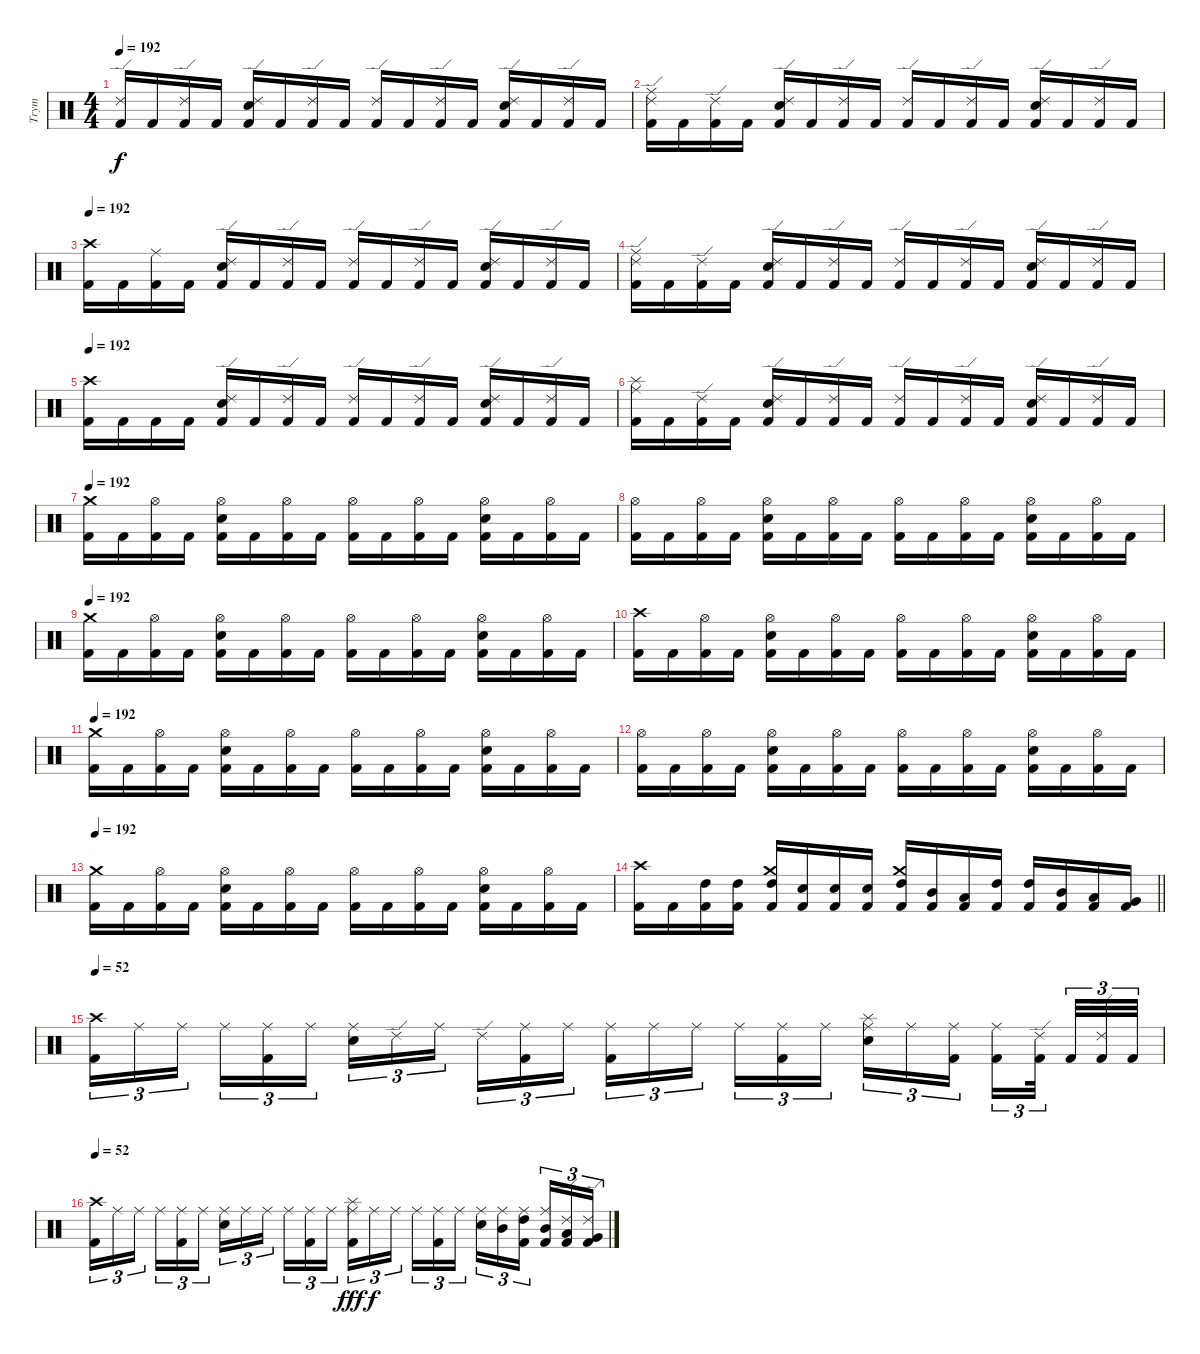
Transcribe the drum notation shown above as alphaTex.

\track ("Trym" "Trym") {instrument percussion}
\staff {score}
\articulation defaults
\ts (4 4)
\tempo 192
\clef neutral
\ks c
("Ride (edge) 2" "Kick (hit) 2").16{dy f} "Kick (hit) 2".16 ("Ride (edge) 2" "Kick (hit) 2").16 "Kick (hit) 2".16 ("Ride (edge) 2" "Electric Snare (hit)" "Kick (hit) 2").16 "Kick (hit) 2".16 ("Ride (edge) 2" "Kick (hit) 2").16 "Kick (hit) 2".16 ("Ride (edge) 2" "Kick (hit) 2").16 "Kick (hit) 2".16 ("Ride (edge) 2" "Kick (hit) 2").16 "Kick (hit) 2".16 ("Ride (edge) 2" "Electric Snare (hit)" "Kick (hit) 2").16 "Kick (hit) 2".16 ("Ride (edge) 2" "Kick (hit) 2").16 "Kick (hit) 2".16 |
("Ride (middle)" "Ride (edge) 2" "Kick (hit) 2").16 "Kick (hit) 2".16 ("Ride (edge) 2" "Kick (hit) 2").16 "Kick (hit) 2".16 ("Ride (edge) 2" "Electric Snare (hit)" "Kick (hit) 2").16 "Kick (hit) 2".16 ("Ride (edge) 2" "Kick (hit) 2").16 "Kick (hit) 2".16 ("Ride (edge) 2" "Kick (hit) 2").16 "Kick (hit) 2".16 ("Ride (edge) 2" "Kick (hit) 2").16 "Kick (hit) 2".16 ("Ride (edge) 2" "Electric Snare (hit)" "Kick (hit) 2").16 "Kick (hit) 2".16 ("Ride (edge) 2" "Kick (hit) 2").16 "Kick (hit) 2".16 |
\tempo 192
("Crash high (hit)" "Kick (hit) 2").16 "Kick (hit) 2".16 ("Ride (middle)" "Kick (hit) 2").16 "Kick (hit) 2".16 ("Ride (edge) 2" "Electric Snare (hit)" "Kick (hit) 2").16 "Kick (hit) 2".16 ("Ride (edge) 2" "Kick (hit) 2").16 "Kick (hit) 2".16 ("Ride (edge) 2" "Kick (hit) 2").16 "Kick (hit) 2".16 ("Ride (edge) 2" "Kick (hit) 2").16 "Kick (hit) 2".16 ("Ride (edge) 2" "Electric Snare (hit)" "Kick (hit) 2").16 "Kick (hit) 2".16 ("Ride (edge) 2" "Kick (hit) 2").16 "Kick (hit) 2".16 |
("Ride (middle)" "Ride (edge) 2" "Kick (hit) 2").16 "Kick (hit) 2".16 ("Ride (edge) 2" "Kick (hit) 2").16 "Kick (hit) 2".16 ("Ride (edge) 2" "Electric Snare (hit)" "Kick (hit) 2").16 "Kick (hit) 2".16 ("Ride (edge) 2" "Kick (hit) 2").16 "Kick (hit) 2".16 ("Ride (edge) 2" "Kick (hit) 2").16 "Kick (hit) 2".16 ("Ride (edge) 2" "Kick (hit) 2").16 "Kick (hit) 2".16 ("Ride (edge) 2" "Electric Snare (hit)" "Kick (hit) 2").16 "Kick (hit) 2".16 ("Ride (edge) 2" "Kick (hit) 2").16 "Kick (hit) 2".16 |
\tempo 192
("Crash high (hit)" "Kick (hit) 2").16 "Kick (hit) 2".16 "Kick (hit) 2".16 "Kick (hit) 2".16 ("Ride (edge) 2" "Electric Snare (hit)" "Kick (hit) 2").16 "Kick (hit) 2".16 ("Ride (edge) 2" "Kick (hit) 2").16 "Kick (hit) 2".16 ("Ride (edge) 2" "Kick (hit) 2").16 "Kick (hit) 2".16 ("Ride (edge) 2" "Kick (hit) 2").16 "Kick (hit) 2".16 ("Ride (edge) 2" "Electric Snare (hit)" "Kick (hit) 2").16 "Kick (hit) 2".16 ("Ride (edge) 2" "Kick (hit) 2").16 "Kick (hit) 2".16 |
("Ride (middle)" "Splash (hit)" "Kick (hit) 2").16 "Kick (hit) 2".16 ("Ride (edge) 2" "Kick (hit) 2").16 "Kick (hit) 2".16 ("Ride (edge) 2" "Electric Snare (hit)" "Kick (hit) 2").16 "Kick (hit) 2".16 ("Ride (edge) 2" "Kick (hit) 2").16 "Kick (hit) 2".16 ("Ride (edge) 2" "Kick (hit) 2").16 "Kick (hit) 2".16 ("Ride (edge) 2" "Kick (hit) 2").16 "Kick (hit) 2".16 ("Ride (edge) 2" "Electric Snare (hit)" "Kick (hit) 2").16 "Kick (hit) 2".16 ("Ride (edge) 2" "Kick (hit) 2").16 "Kick (hit) 2".16 |
\tempo 192
("Crash medium (hit)" "Kick (hit) 2").16 "Kick (hit) 2".16 ("Hi-Hat (open)" "Kick (hit) 2").16 "Kick (hit) 2".16 ("Hi-Hat (open)" "Electric Snare (hit)" "Kick (hit) 2").16 "Kick (hit) 2".16 ("Hi-Hat (open)" "Kick (hit) 2").16 "Kick (hit) 2".16 ("Hi-Hat (open)" "Kick (hit) 2").16 "Kick (hit) 2".16 ("Hi-Hat (open)" "Kick (hit) 2").16 "Kick (hit) 2".16 ("Hi-Hat (open)" "Electric Snare (hit)" "Kick (hit) 2").16 "Kick (hit) 2".16 ("Hi-Hat (open)" "Kick (hit) 2").16 "Kick (hit) 2".16 |
("Hi-Hat (open)" "Kick (hit) 2").16 "Kick (hit) 2".16 ("Hi-Hat (open)" "Kick (hit) 2").16 "Kick (hit) 2".16 ("Hi-Hat (open)" "Electric Snare (hit)" "Kick (hit) 2").16 "Kick (hit) 2".16 ("Hi-Hat (open)" "Kick (hit) 2").16 "Kick (hit) 2".16 ("Hi-Hat (open)" "Kick (hit) 2").16 "Kick (hit) 2".16 ("Hi-Hat (open)" "Kick (hit) 2").16 "Kick (hit) 2".16 ("Hi-Hat (open)" "Electric Snare (hit)" "Kick (hit) 2").16 "Kick (hit) 2".16 ("Hi-Hat (open)" "Kick (hit) 2").16 "Kick (hit) 2".16 |
\tempo 192
("Crash medium (hit)" "Kick (hit) 2").16 "Kick (hit) 2".16 ("Hi-Hat (open)" "Kick (hit) 2").16 "Kick (hit) 2".16 ("Hi-Hat (open)" "Electric Snare (hit)" "Kick (hit) 2").16 "Kick (hit) 2".16 ("Hi-Hat (open)" "Kick (hit) 2").16 "Kick (hit) 2".16 ("Hi-Hat (open)" "Kick (hit) 2").16 "Kick (hit) 2".16 ("Hi-Hat (open)" "Kick (hit) 2").16 "Kick (hit) 2".16 ("Hi-Hat (open)" "Electric Snare (hit)" "Kick (hit) 2").16 "Kick (hit) 2".16 ("Hi-Hat (open)" "Kick (hit) 2").16 "Kick (hit) 2".16 |
("Crash high (hit)" "Kick (hit) 2").16 "Kick (hit) 2".16 ("Hi-Hat (open)" "Kick (hit) 2").16 "Kick (hit) 2".16 ("Hi-Hat (open)" "Electric Snare (hit)" "Kick (hit) 2").16 "Kick (hit) 2".16 ("Hi-Hat (open)" "Kick (hit) 2").16 "Kick (hit) 2".16 ("Hi-Hat (open)" "Kick (hit) 2").16 "Kick (hit) 2".16 ("Hi-Hat (open)" "Kick (hit) 2").16 "Kick (hit) 2".16 ("Hi-Hat (open)" "Electric Snare (hit)" "Kick (hit) 2").16 "Kick (hit) 2".16 ("Hi-Hat (open)" "Kick (hit) 2").16 "Kick (hit) 2".16 |
\tempo 192
("Crash medium (hit)" "Kick (hit) 2").16 "Kick (hit) 2".16 ("Hi-Hat (open)" "Kick (hit) 2").16 "Kick (hit) 2".16 ("Hi-Hat (open)" "Electric Snare (hit)" "Kick (hit) 2").16 "Kick (hit) 2".16 ("Hi-Hat (open)" "Kick (hit) 2").16 "Kick (hit) 2".16 ("Hi-Hat (open)" "Kick (hit) 2").16 "Kick (hit) 2".16 ("Hi-Hat (open)" "Kick (hit) 2").16 "Kick (hit) 2".16 ("Hi-Hat (open)" "Electric Snare (hit)" "Kick (hit) 2").16 "Kick (hit) 2".16 ("Hi-Hat (open)" "Kick (hit) 2").16 "Kick (hit) 2".16 |
("Hi-Hat (open)" "Kick (hit) 2").16 "Kick (hit) 2".16 ("Hi-Hat (open)" "Kick (hit) 2").16 "Kick (hit) 2".16 ("Hi-Hat (open)" "Electric Snare (hit)" "Kick (hit) 2").16 "Kick (hit) 2".16 ("Hi-Hat (open)" "Kick (hit) 2").16 "Kick (hit) 2".16 ("Hi-Hat (open)" "Kick (hit) 2").16 "Kick (hit) 2".16 ("Hi-Hat (open)" "Kick (hit) 2").16 "Kick (hit) 2".16 ("Hi-Hat (open)" "Electric Snare (hit)" "Kick (hit) 2").16 "Kick (hit) 2".16 ("Hi-Hat (open)" "Kick (hit) 2").16 "Kick (hit) 2".16 |
\tempo 192
("Crash medium (hit)" "Kick (hit) 2").16 "Kick (hit) 2".16 ("Hi-Hat (open)" "Kick (hit) 2").16 "Kick (hit) 2".16 ("Hi-Hat (open)" "Electric Snare (hit)" "Kick (hit) 2").16 "Kick (hit) 2".16 ("Hi-Hat (open)" "Kick (hit) 2").16 "Kick (hit) 2".16 ("Hi-Hat (open)" "Kick (hit) 2").16 "Kick (hit) 2".16 ("Hi-Hat (open)" "Kick (hit) 2").16 "Kick (hit) 2".16 ("Hi-Hat (open)" "Electric Snare (hit)" "Kick (hit) 2").16 "Kick (hit) 2".16 ("Hi-Hat (open)" "Kick (hit) 2").16 "Kick (hit) 2".16 |
\barLineRight lightlight
("Crash high (hit)" "Kick (hit) 2").16 "Kick (hit) 2".16 ("High Tom (hit)" "Kick (hit) 2").16 ("High Tom (hit)" "Kick (hit) 2").16 ("Crash medium (hit)" "High Tom (hit)" "Kick (hit) 2").16 ("Electric Snare (hit)" "Kick (hit) 2").16 ("Electric Snare (hit)" "Kick (hit) 2").16 ("Electric Snare (hit)" "Kick (hit) 2").16 ("Crash medium (hit)" "High Tom (hit)" "Kick (hit) 2").16 ("Mid Tom (hit)" "Kick (hit) 2").16 ("Low Tom (hit)" "Kick (hit) 2").16 ("High Tom (hit)" "Kick (hit) 2").16 ("High Tom (hit)" "Kick (hit) 2").16 ("Mid Tom (hit)" "Kick (hit) 2").16 ("Low Tom (hit)" "Kick (hit) 2").16 ("Very Low Tom (hit)" "Kick (hit) 2").16 |
\section ("" "")
\tempo 52
("Crash high (hit)" "Kick (hit) 2").16{tu (3 2)} "Ride (middle)".16{tu (3 2)} "Ride (middle)".16{tu (3 2) beam splitsecondary} "Ride (middle)".16{tu (3 2)} ("Ride (middle)" "Kick (hit) 2").16{tu (3 2)} "Ride (middle)".16{tu (3 2)} ("Ride (middle)" "Electric Snare (hit)").16{tu (3 2)} "Ride (edge) 2".16{tu (3 2)} "Ride (middle)".16{tu (3 2) beam splitsecondary} "Ride (edge) 2".16{tu (3 2)} ("Ride (middle)" "Kick (hit) 2").16{tu (3 2)} "Ride (middle)".16{tu (3 2)} ("Ride (middle)" "Kick (hit) 2").16{tu (3 2)} "Ride (middle)".16{tu (3 2)} "Ride (middle)".16{tu (3 2) beam splitsecondary} "Ride (middle)".16{tu (3 2)} ("Ride (middle)" "Kick (hit) 2").16{tu (3 2)} "Ride (middle)".16{tu (3 2)} ("Ride (middle)" "Splash (hit)" "Electric Snare (hit)").16{tu (3 2)} "Ride (middle)".16{tu (3 2)} ("Ride (middle)" "Kick (hit) 2").16{tu (3 2) beam splitsecondary} ("Ride (middle)" "Kick (hit) 2").16{tu (3 2)} ("Ride (edge) 2" "Kick (hit) 2").32{tu (3 2) beam splitsecondary} "Kick (hit) 2".32{tu (3 2)} ("Ride (edge) 2" "Kick (hit) 2").32{tu (3 2)} "Kick (hit) 2".32{tu (3 2)} |
\tempo 52
("Crash high (hit)" "Kick (hit) 2").16{tu (3 2)} "Ride (middle)".16{tu (3 2)} "Ride (middle)".16{tu (3 2) beam splitsecondary} "Ride (middle)".16{tu (3 2)} ("Ride (middle)" "Kick (hit) 2").16{tu (3 2)} "Ride (middle)".16{tu (3 2)} ("Ride (middle)" "Electric Snare (hit)").16{tu (3 2)} "Ride (middle)".16{tu (3 2)} "Ride (middle)".16{tu (3 2) beam splitsecondary} "Ride (middle)".16{tu (3 2)} ("Ride (middle)" "Kick (hit) 2").16{tu (3 2)} "Ride (middle)".16{tu (3 2)} ("Ride (middle)" "Splash (hit)" "Kick (hit) 2").16{tu (3 2) dy fff} "Ride (middle)".16{tu (3 2) dy f} "Ride (middle)".16{tu (3 2) beam splitsecondary} "Ride (middle)".16{tu (3 2)} ("Ride (middle)" "Kick (hit) 2").16{tu (3 2)} "Ride (middle)".16{tu (3 2)} ("Ride (middle)" "Electric Snare (hit)").16{tu (3 2)} ("Ride (middle)" "Mid Tom (hit)").16{tu (3 2)} ("Ride (middle)" "High Tom (hit)" "Kick (hit) 2").16{tu (3 2) beam splitsecondary} ("Ride (middle)" "Mid Tom (hit)" "Kick (hit) 2").16{tu (3 2)} ("Ride (edge) 2" "Low Tom (hit)" "Kick (hit) 2").16{tu (3 2)} ("Ride (edge) 2" "Very Low Tom (hit)" "Kick (hit) 2").16{tu (3 2)}
